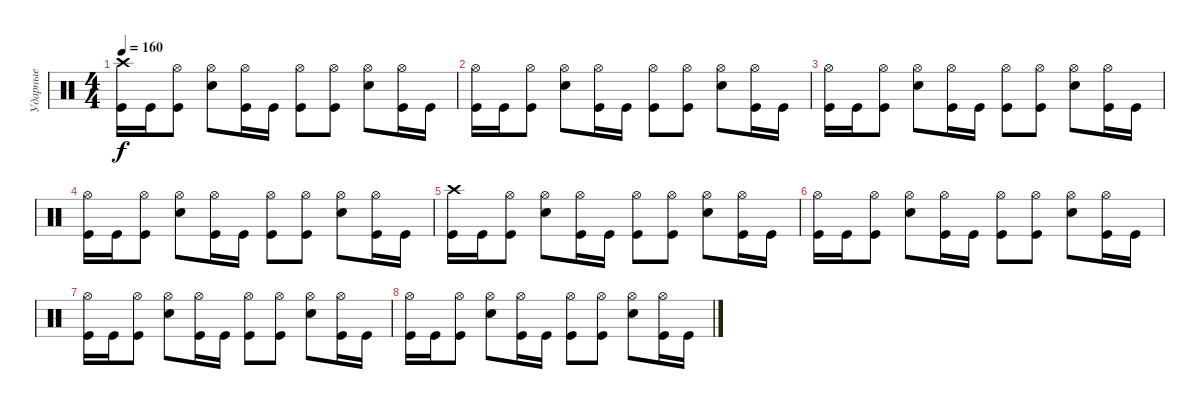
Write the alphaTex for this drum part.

\track ("Ударные" "Ударные") {instrument percussion}
\staff {score}
\articulation defaults
\ts (4 4)
\tempo 160
\clef neutral
\ks c
("Crash high (hit)" "Kick (hit)").16{dy f} "Kick (hit)".16 ("Hi-Hat (open)" "Kick (hit)").8 ("Hi-Hat (open)" "Snare (hit) 2").8 ("Hi-Hat (open)" "Kick (hit)").16 "Kick (hit)".16 ("Hi-Hat (open)" "Kick (hit)").8 ("Hi-Hat (open)" "Kick (hit)").8 ("Hi-Hat (open)" "Snare (hit) 2").8 ("Hi-Hat (open)" "Kick (hit)").16 "Kick (hit)".16 |
("Hi-Hat (open)" "Kick (hit)").16 "Kick (hit)".16 ("Hi-Hat (open)" "Kick (hit)").8 ("Hi-Hat (open)" "Snare (hit) 2").8 ("Hi-Hat (open)" "Kick (hit)").16 "Kick (hit)".16 ("Hi-Hat (open)" "Kick (hit)").8 ("Hi-Hat (open)" "Kick (hit)").8 ("Hi-Hat (open)" "Snare (hit) 2").8 ("Hi-Hat (open)" "Kick (hit)").16 "Kick (hit)".16 |
("Hi-Hat (open)" "Kick (hit)").16 "Kick (hit)".16 ("Hi-Hat (open)" "Kick (hit)").8 ("Hi-Hat (open)" "Snare (hit) 2").8 ("Hi-Hat (open)" "Kick (hit)").16 "Kick (hit)".16 ("Hi-Hat (open)" "Kick (hit)").8 ("Hi-Hat (open)" "Kick (hit)").8 ("Hi-Hat (open)" "Snare (hit) 2").8 ("Hi-Hat (open)" "Kick (hit)").16 "Kick (hit)".16 |
("Hi-Hat (open)" "Kick (hit)").16 "Kick (hit)".16 ("Hi-Hat (open)" "Kick (hit)").8 ("Hi-Hat (open)" "Snare (hit) 2").8 ("Hi-Hat (open)" "Kick (hit)").16 "Kick (hit)".16 ("Hi-Hat (open)" "Kick (hit)").8 ("Hi-Hat (open)" "Kick (hit)").8 ("Hi-Hat (open)" "Snare (hit) 2").8 ("Hi-Hat (open)" "Kick (hit)").16 "Kick (hit)".16 |
("Crash high (hit)" "Kick (hit)").16 "Kick (hit)".16 ("Hi-Hat (open)" "Kick (hit)").8 ("Hi-Hat (open)" "Snare (hit) 2").8 ("Hi-Hat (open)" "Kick (hit)").16 "Kick (hit)".16 ("Hi-Hat (open)" "Kick (hit)").8 ("Hi-Hat (open)" "Kick (hit)").8 ("Hi-Hat (open)" "Snare (hit) 2").8 ("Hi-Hat (open)" "Kick (hit)").16 "Kick (hit)".16 |
("Hi-Hat (open)" "Kick (hit)").16 "Kick (hit)".16 ("Hi-Hat (open)" "Kick (hit)").8 ("Hi-Hat (open)" "Snare (hit) 2").8 ("Hi-Hat (open)" "Kick (hit)").16 "Kick (hit)".16 ("Hi-Hat (open)" "Kick (hit)").8 ("Hi-Hat (open)" "Kick (hit)").8 ("Hi-Hat (open)" "Snare (hit) 2").8 ("Hi-Hat (open)" "Kick (hit)").16 "Kick (hit)".16 |
("Hi-Hat (open)" "Kick (hit)").16 "Kick (hit)".16 ("Hi-Hat (open)" "Kick (hit)").8 ("Hi-Hat (open)" "Snare (hit) 2").8 ("Hi-Hat (open)" "Kick (hit)").16 "Kick (hit)".16 ("Hi-Hat (open)" "Kick (hit)").8 ("Hi-Hat (open)" "Kick (hit)").8 ("Hi-Hat (open)" "Snare (hit) 2").8 ("Hi-Hat (open)" "Kick (hit)").16 "Kick (hit)".16 |
("Hi-Hat (open)" "Kick (hit)").16 "Kick (hit)".16 ("Hi-Hat (open)" "Kick (hit)").8 ("Hi-Hat (open)" "Snare (hit) 2").8 ("Hi-Hat (open)" "Kick (hit)").16 "Kick (hit)".16 ("Hi-Hat (open)" "Kick (hit)").8 ("Hi-Hat (open)" "Kick (hit)").8 ("Hi-Hat (open)" "Snare (hit) 2").8 ("Hi-Hat (open)" "Kick (hit)").16 "Kick (hit)".16
